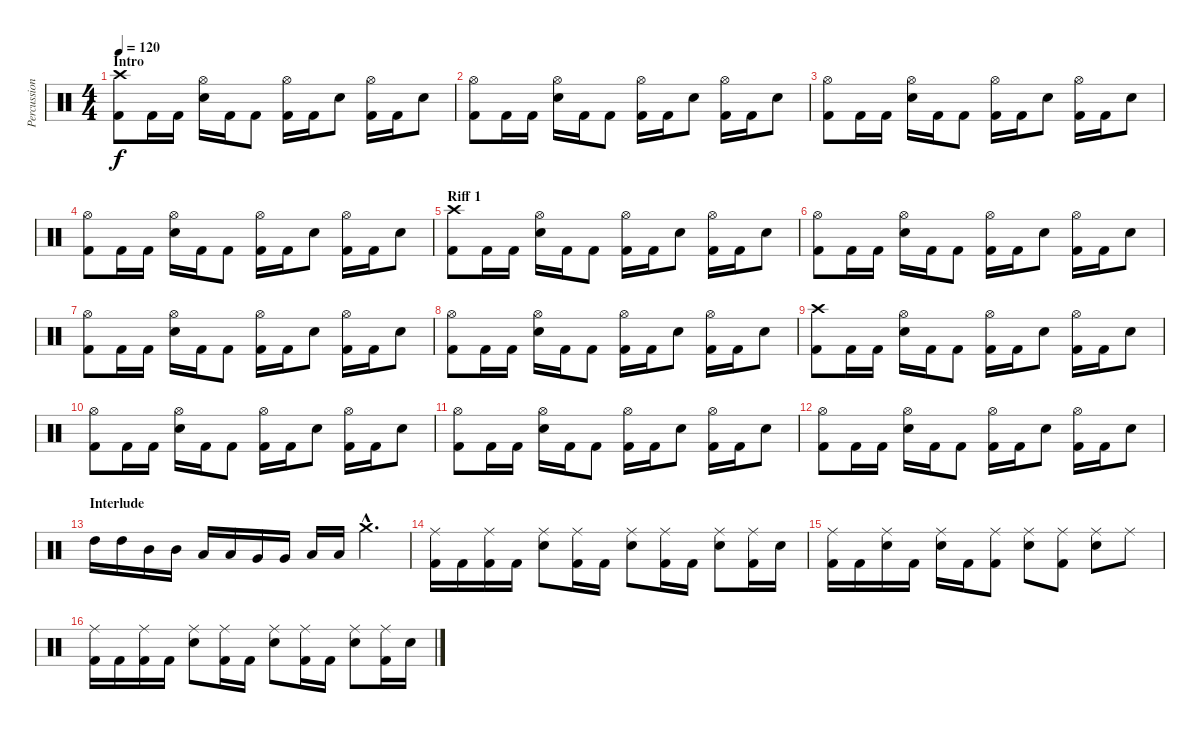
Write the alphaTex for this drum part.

\track ("Percussion" "Percussion") {instrument percussion}
\staff {score}
\articulation defaults
\ts (4 4)
\section ("" "Intro")
\tempo 120
\clef neutral
\ks c
("Crash high (hit)" "Kick (hit) 2").8{dy f} "Kick (hit) 2".16 "Kick (hit) 2".16 ("Hi-Hat (open)" "Snare (hit) 2").16 "Kick (hit) 2".16 "Kick (hit) 2".8 ("Hi-Hat (open)" "Kick (hit) 2").16 "Kick (hit) 2".16 "Snare (hit) 2".8 ("Hi-Hat (open)" "Kick (hit) 2").16 "Kick (hit) 2".16 "Snare (hit) 2".8 |
("Hi-Hat (open)" "Kick (hit) 2").8 "Kick (hit) 2".16 "Kick (hit) 2".16 ("Hi-Hat (open)" "Snare (hit) 2").16 "Kick (hit) 2".16 "Kick (hit) 2".8 ("Hi-Hat (open)" "Kick (hit) 2").16 "Kick (hit) 2".16 "Snare (hit) 2".8 ("Hi-Hat (open)" "Kick (hit) 2").16 "Kick (hit) 2".16 "Snare (hit) 2".8 |
("Hi-Hat (open)" "Kick (hit) 2").8 "Kick (hit) 2".16 "Kick (hit) 2".16 ("Hi-Hat (open)" "Snare (hit) 2").16 "Kick (hit) 2".16 "Kick (hit) 2".8 ("Hi-Hat (open)" "Kick (hit) 2").16 "Kick (hit) 2".16 "Snare (hit) 2".8 ("Hi-Hat (open)" "Kick (hit) 2").16 "Kick (hit) 2".16 "Snare (hit) 2".8 |
("Hi-Hat (open)" "Kick (hit) 2").8 "Kick (hit) 2".16 "Kick (hit) 2".16 ("Hi-Hat (open)" "Snare (hit) 2").16 "Kick (hit) 2".16 "Kick (hit) 2".8 ("Hi-Hat (open)" "Kick (hit) 2").16 "Kick (hit) 2".16 "Snare (hit) 2".8 ("Hi-Hat (open)" "Kick (hit) 2").16 "Kick (hit) 2".16 "Snare (hit) 2".8 |
\section ("" "Riff 1")
("Crash high (hit)" "Kick (hit) 2").8 "Kick (hit) 2".16 "Kick (hit) 2".16 ("Hi-Hat (open)" "Snare (hit) 2").16 "Kick (hit) 2".16 "Kick (hit) 2".8 ("Hi-Hat (open)" "Kick (hit) 2").16 "Kick (hit) 2".16 "Snare (hit) 2".8 ("Hi-Hat (open)" "Kick (hit) 2").16 "Kick (hit) 2".16 "Snare (hit) 2".8 |
("Hi-Hat (open)" "Kick (hit) 2").8 "Kick (hit) 2".16 "Kick (hit) 2".16 ("Hi-Hat (open)" "Snare (hit) 2").16 "Kick (hit) 2".16 "Kick (hit) 2".8 ("Hi-Hat (open)" "Kick (hit) 2").16 "Kick (hit) 2".16 "Snare (hit) 2".8 ("Hi-Hat (open)" "Kick (hit) 2").16 "Kick (hit) 2".16 "Snare (hit) 2".8 |
("Hi-Hat (open)" "Kick (hit) 2").8 "Kick (hit) 2".16 "Kick (hit) 2".16 ("Hi-Hat (open)" "Snare (hit) 2").16 "Kick (hit) 2".16 "Kick (hit) 2".8 ("Hi-Hat (open)" "Kick (hit) 2").16 "Kick (hit) 2".16 "Snare (hit) 2".8 ("Hi-Hat (open)" "Kick (hit) 2").16 "Kick (hit) 2".16 "Snare (hit) 2".8 |
("Hi-Hat (open)" "Kick (hit) 2").8 "Kick (hit) 2".16 "Kick (hit) 2".16 ("Hi-Hat (open)" "Snare (hit) 2").16 "Kick (hit) 2".16 "Kick (hit) 2".8 ("Hi-Hat (open)" "Kick (hit) 2").16 "Kick (hit) 2".16 "Snare (hit) 2".8 ("Hi-Hat (open)" "Kick (hit) 2").16 "Kick (hit) 2".16 "Snare (hit) 2".8 |
("Crash high (hit)" "Kick (hit) 2").8 "Kick (hit) 2".16 "Kick (hit) 2".16 ("Hi-Hat (open)" "Snare (hit) 2").16 "Kick (hit) 2".16 "Kick (hit) 2".8 ("Hi-Hat (open)" "Kick (hit) 2").16 "Kick (hit) 2".16 "Snare (hit) 2".8 ("Hi-Hat (open)" "Kick (hit) 2").16 "Kick (hit) 2".16 "Snare (hit) 2".8 |
("Hi-Hat (open)" "Kick (hit) 2").8 "Kick (hit) 2".16 "Kick (hit) 2".16 ("Hi-Hat (open)" "Snare (hit) 2").16 "Kick (hit) 2".16 "Kick (hit) 2".8 ("Hi-Hat (open)" "Kick (hit) 2").16 "Kick (hit) 2".16 "Snare (hit) 2".8 ("Hi-Hat (open)" "Kick (hit) 2").16 "Kick (hit) 2".16 "Snare (hit) 2".8 |
("Hi-Hat (open)" "Kick (hit) 2").8 "Kick (hit) 2".16 "Kick (hit) 2".16 ("Hi-Hat (open)" "Snare (hit) 2").16 "Kick (hit) 2".16 "Kick (hit) 2".8 ("Hi-Hat (open)" "Kick (hit) 2").16 "Kick (hit) 2".16 "Snare (hit) 2".8 ("Hi-Hat (open)" "Kick (hit) 2").16 "Kick (hit) 2".16 "Snare (hit) 2".8 |
("Hi-Hat (open)" "Kick (hit) 2").8 "Kick (hit) 2".16 "Kick (hit) 2".16 ("Hi-Hat (open)" "Snare (hit) 2").16 "Kick (hit) 2".16 "Kick (hit) 2".8 ("Hi-Hat (open)" "Kick (hit) 2").16 "Kick (hit) 2".16 "Snare (hit) 2".8 ("Hi-Hat (open)" "Kick (hit) 2").16 "Kick (hit) 2".16 "Snare (hit) 2".8 |
\section ("" "Interlude")
"High Tom (hit)".16 "High Tom (hit)".16 "Mid Tom (hit)".16 "Mid Tom (hit)".16 "Low Tom (hit)".16 "Low Tom (hit)".16 "Very Low Tom (hit)".16 "Very Low Tom (hit)".16 "Low Floor Tom (hit)".16 "Low Floor Tom (hit)".16 "Crash medium (hit)"{hac}.4{d} |
("Ride (middle)" "Kick (hit) 2").16 "Kick (hit) 2".16 ("Ride (middle)" "Kick (hit) 2").16 "Kick (hit) 2".16 ("Ride (middle)" "Snare (hit) 2").8 ("Ride (middle)" "Kick (hit) 2").16 "Kick (hit) 2".16 ("Ride (middle)" "Snare (hit) 2").8 ("Ride (middle)" "Kick (hit) 2").16 "Kick (hit) 2".16 ("Ride (middle)" "Snare (hit) 2").8 ("Ride (middle)" "Kick (hit) 2").16 "Snare (hit) 2".16 |
("Ride (middle)" "Kick (hit) 2").16 "Kick (hit) 2".16 ("Ride (middle)" "Snare (hit) 2").16 "Kick (hit) 2".16 ("Ride (middle)" "Snare (hit) 2").16 "Kick (hit) 2".16 ("Ride (middle)" "Kick (hit) 2").8 ("Ride (middle)" "Snare (hit) 2").8 ("Ride (middle)" "Kick (hit) 2").8 ("Ride (middle)" "Snare (hit) 2").8 "Ride (middle)".8 |
("Ride (middle)" "Kick (hit) 2").16 "Kick (hit) 2".16 ("Ride (middle)" "Kick (hit) 2").16 "Kick (hit) 2".16 ("Ride (middle)" "Snare (hit) 2").8 ("Ride (middle)" "Kick (hit) 2").16 "Kick (hit) 2".16 ("Ride (middle)" "Snare (hit) 2").8 ("Ride (middle)" "Kick (hit) 2").16 "Kick (hit) 2".16 ("Ride (middle)" "Snare (hit) 2").8 ("Ride (middle)" "Kick (hit) 2").16 "Snare (hit) 2".16
